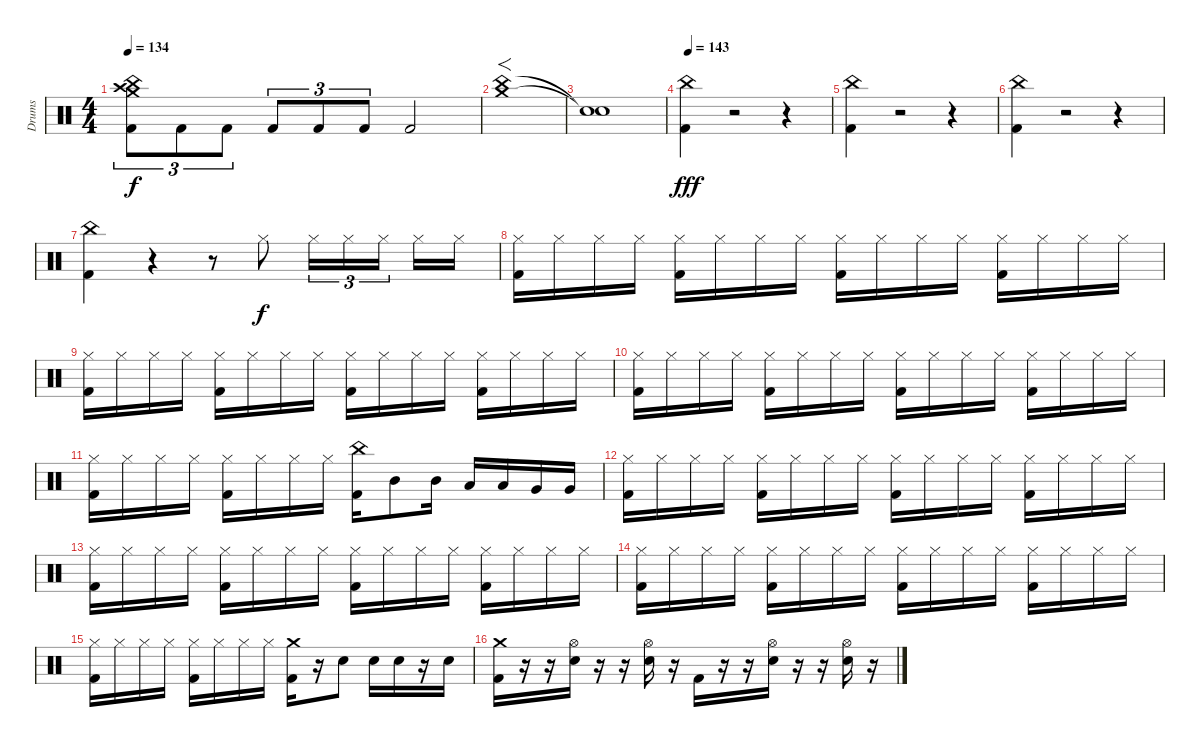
\track ("Drums" "Drums") {instrument percussion}
\staff {score}
\articulation defaults
\ts (4 4)
\tempo 134
\clef neutral
\ks c
("Crash medium (hit)" "China (hit)" "Crash high (hit)" "Kick (hit) 2").8{tu (3 2) dy f} "Kick (hit) 2".8{tu (3 2)} "Kick (hit) 2".8{tu (3 2)} "Kick (hit) 2".8{tu (3 2)} "Kick (hit) 2".8{tu (3 2)} "Kick (hit) 2".8{tu (3 2)} "Kick (hit) 2".2 |
("China (hit)" "Crash medium (hit)").1{f} |
("Snare (hit)"{t} "Snare (hit)"{t}).1 |
\tempo 143
("China (hit)" "Kick (hit) 2").4{dy fff} r.2 r.4 |
("China (hit)" "Kick (hit) 2").4 r.2 r.4 |
("China (hit)" "Kick (hit) 2").4 r.2 r.4 |
("China (hit)" "Kick (hit) 2").4 r.4 r.8 "Hi-Hat (closed)".8{dy f} "Hi-Hat (closed)".16{tu (3 2)} "Hi-Hat (closed)".16{tu (3 2)} "Hi-Hat (closed)".16{tu (3 2)} "Hi-Hat (closed)".16 "Hi-Hat (closed)".16 |
("Hi-Hat (closed)" "Kick (hit) 2").16 "Hi-Hat (closed)".16 "Hi-Hat (closed)".16 "Hi-Hat (closed)".16 ("Hi-Hat (closed)" "Kick (hit) 2").16 "Hi-Hat (closed)".16 "Hi-Hat (closed)".16 "Hi-Hat (closed)".16 ("Hi-Hat (closed)" "Kick (hit) 2").16 "Hi-Hat (closed)".16 "Hi-Hat (closed)".16 "Hi-Hat (closed)".16 ("Hi-Hat (closed)" "Kick (hit) 2").16 "Hi-Hat (closed)".16 "Hi-Hat (closed)".16 "Hi-Hat (closed)".16 |
("Hi-Hat (closed)" "Kick (hit) 2").16 "Hi-Hat (closed)".16 "Hi-Hat (closed)".16 "Hi-Hat (closed)".16 ("Hi-Hat (closed)" "Kick (hit) 2").16 "Hi-Hat (closed)".16 "Hi-Hat (closed)".16 "Hi-Hat (closed)".16 ("Hi-Hat (closed)" "Kick (hit) 2").16 "Hi-Hat (closed)".16 "Hi-Hat (closed)".16 "Hi-Hat (closed)".16 ("Hi-Hat (closed)" "Kick (hit) 2").16 "Hi-Hat (closed)".16 "Hi-Hat (closed)".16 "Hi-Hat (closed)".16 |
("Hi-Hat (closed)" "Kick (hit) 2").16 "Hi-Hat (closed)".16 "Hi-Hat (closed)".16 "Hi-Hat (closed)".16 ("Hi-Hat (closed)" "Kick (hit) 2").16 "Hi-Hat (closed)".16 "Hi-Hat (closed)".16 "Hi-Hat (closed)".16 ("Hi-Hat (closed)" "Kick (hit) 2").16 "Hi-Hat (closed)".16 "Hi-Hat (closed)".16 "Hi-Hat (closed)".16 ("Hi-Hat (closed)" "Kick (hit) 2").16 "Hi-Hat (closed)".16 "Hi-Hat (closed)".16 "Hi-Hat (closed)".16 |
("Hi-Hat (closed)" "Kick (hit) 2").16 "Hi-Hat (closed)".16 "Hi-Hat (closed)".16 "Hi-Hat (closed)".16 ("Hi-Hat (closed)" "Kick (hit) 2").16 "Hi-Hat (closed)".16 "Hi-Hat (closed)".16 "Hi-Hat (closed)".16 ("China (hit)" "Kick (hit) 2").16 "Mid Tom (hit)".8 "Mid Tom (hit)".16 "Low Tom (hit)".16 "Low Tom (hit)".16 "Very Low Tom (hit)".16 "Very Low Tom (hit)".16 |
("Hi-Hat (closed)" "Kick (hit) 2").16 "Hi-Hat (closed)".16 "Hi-Hat (closed)".16 "Hi-Hat (closed)".16 ("Hi-Hat (closed)" "Kick (hit) 2").16 "Hi-Hat (closed)".16 "Hi-Hat (closed)".16 "Hi-Hat (closed)".16 ("Hi-Hat (closed)" "Kick (hit) 2").16 "Hi-Hat (closed)".16 "Hi-Hat (closed)".16 "Hi-Hat (closed)".16 ("Hi-Hat (closed)" "Kick (hit) 2").16 "Hi-Hat (closed)".16 "Hi-Hat (closed)".16 "Hi-Hat (closed)".16 |
("Hi-Hat (closed)" "Kick (hit) 2").16 "Hi-Hat (closed)".16 "Hi-Hat (closed)".16 "Hi-Hat (closed)".16 ("Hi-Hat (closed)" "Kick (hit) 2").16 "Hi-Hat (closed)".16 "Hi-Hat (closed)".16 "Hi-Hat (closed)".16 ("Hi-Hat (closed)" "Kick (hit) 2").16 "Hi-Hat (closed)".16 "Hi-Hat (closed)".16 "Hi-Hat (closed)".16 ("Hi-Hat (closed)" "Kick (hit) 2").16 "Hi-Hat (closed)".16 "Hi-Hat (closed)".16 "Hi-Hat (closed)".16 |
("Hi-Hat (closed)" "Kick (hit) 2").16 "Hi-Hat (closed)".16 "Hi-Hat (closed)".16 "Hi-Hat (closed)".16 ("Hi-Hat (closed)" "Kick (hit) 2").16 "Hi-Hat (closed)".16 "Hi-Hat (closed)".16 "Hi-Hat (closed)".16 ("Hi-Hat (closed)" "Kick (hit) 2").16 "Hi-Hat (closed)".16 "Hi-Hat (closed)".16 "Hi-Hat (closed)".16 ("Hi-Hat (closed)" "Kick (hit) 2").16 "Hi-Hat (closed)".16 "Hi-Hat (closed)".16 "Hi-Hat (closed)".16 |
("Hi-Hat (closed)" "Kick (hit) 2").16 "Hi-Hat (closed)".16 "Hi-Hat (closed)".16 "Hi-Hat (closed)".16 ("Hi-Hat (closed)" "Kick (hit) 2").16 "Hi-Hat (closed)".16 "Hi-Hat (closed)".16 "Hi-Hat (closed)".16 ("Crash medium (hit)" "Kick (hit) 2").16 r.16 "Electric Snare (hit)".8 "Electric Snare (hit)".16 "Electric Snare (hit)".16 r.16 "Electric Snare (hit)".16 |
("Crash medium (hit)" "Kick (hit) 2").16 r.16 r.16 ("Hi-Hat (open)" "Electric Snare (hit)").16 r.16 r.16 ("Hi-Hat (open)" "Electric Snare (hit)").16 r.16 "Kick (hit) 2".16 r.16 r.16 ("Hi-Hat (open)" "Electric Snare (hit)").16 r.16 r.16 ("Hi-Hat (open)" "Electric Snare (hit)").16 r.16
